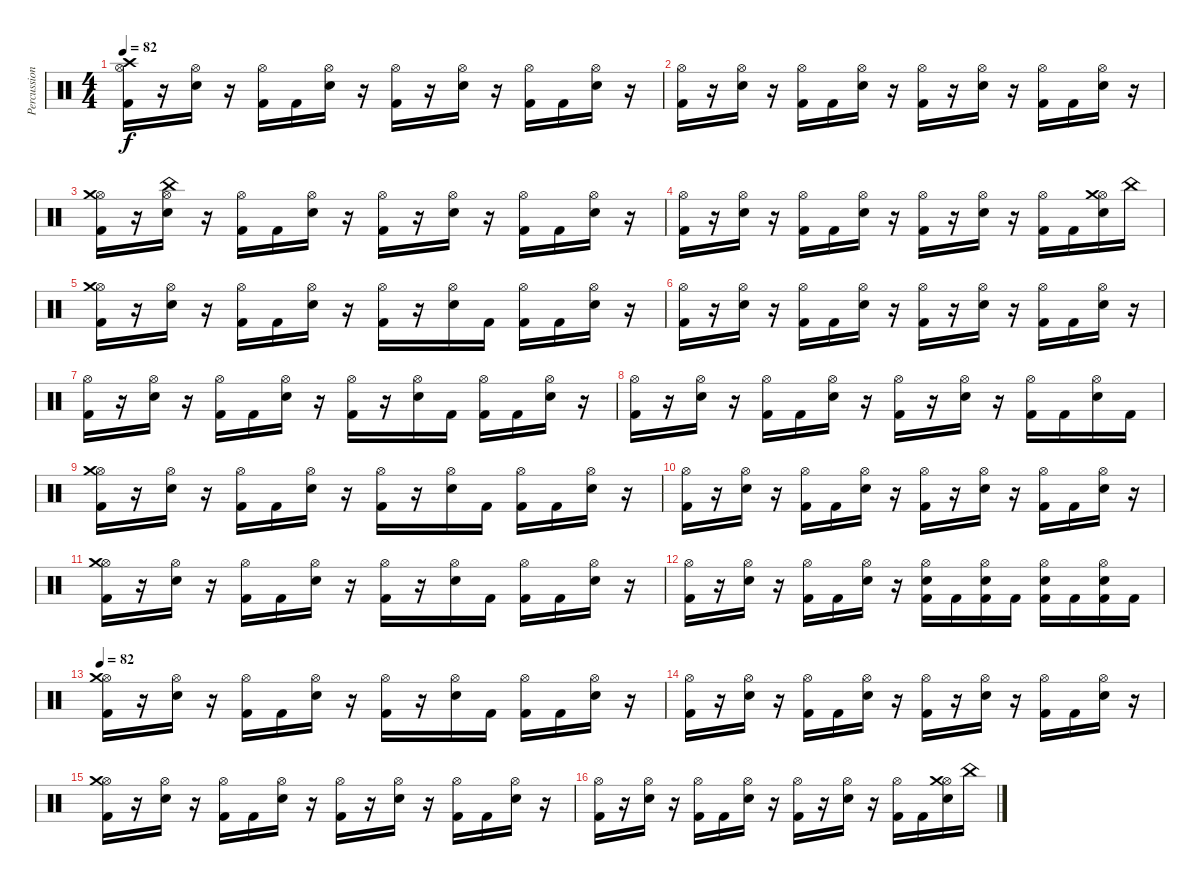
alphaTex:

\track ("Percussion" "Percussion") {instrument percussion}
\staff {score}
\articulation defaults
\ts (4 4)
\tempo 82
\clef neutral
\ks c
("Hi-Hat (open)" "Crash high (hit)" "Kick (hit) 2").16{dy f} r.16 ("Hi-Hat (open)" "Snare (hit) 2").16 r.16 ("Hi-Hat (open)" "Kick (hit) 2").16 "Kick (hit) 2".16 ("Hi-Hat (open)" "Snare (hit) 2").16 r.16 ("Hi-Hat (open)" "Kick (hit) 2").16 r.16 ("Hi-Hat (open)" "Snare (hit) 2").16 r.16 ("Hi-Hat (open)" "Kick (hit) 2").16 "Kick (hit) 2".16 ("Hi-Hat (open)" "Snare (hit) 2").16 r.16 |
("Hi-Hat (open)" "Kick (hit) 2").16 r.16 ("Hi-Hat (open)" "Snare (hit) 2").16 r.16 ("Hi-Hat (open)" "Kick (hit) 2").16 "Kick (hit) 2".16 ("Hi-Hat (open)" "Snare (hit) 2").16 r.16 ("Hi-Hat (open)" "Kick (hit) 2").16 r.16 ("Hi-Hat (open)" "Snare (hit) 2").16 r.16 ("Hi-Hat (open)" "Kick (hit) 2").16 "Kick (hit) 2".16 ("Hi-Hat (open)" "Snare (hit) 2").16 r.16 |
("Hi-Hat (open)" "Crash medium (hit)" "Kick (hit) 2").16 r.16 ("Hi-Hat (open)" "China (hit)" "Snare (hit) 2").16 r.16 ("Hi-Hat (open)" "Kick (hit) 2").16 "Kick (hit) 2".16 ("Hi-Hat (open)" "Snare (hit) 2").16 r.16 ("Hi-Hat (open)" "Kick (hit) 2").16 r.16 ("Hi-Hat (open)" "Snare (hit) 2").16 r.16 ("Hi-Hat (open)" "Kick (hit) 2").16 "Kick (hit) 2".16 ("Hi-Hat (open)" "Snare (hit) 2").16 r.16 |
("Hi-Hat (open)" "Kick (hit) 2").16 r.16 ("Hi-Hat (open)" "Snare (hit) 2").16 r.16 ("Hi-Hat (open)" "Kick (hit) 2").16 "Kick (hit) 2".16 ("Hi-Hat (open)" "Snare (hit) 2").16 r.16 ("Hi-Hat (open)" "Kick (hit) 2").16 r.16 ("Hi-Hat (open)" "Snare (hit) 2").16 r.16 ("Hi-Hat (open)" "Kick (hit) 2").16 "Kick (hit) 2".16 ("Hi-Hat (open)" "Crash medium (hit)" "Snare (hit) 2").16 "China (hit)".16 |
("Hi-Hat (open)" "Crash medium (hit)" "Kick (hit) 2").16 r.16 ("Hi-Hat (open)" "Snare (hit) 2").16 r.16 ("Hi-Hat (open)" "Kick (hit) 2").16 "Kick (hit) 2".16 ("Hi-Hat (open)" "Snare (hit) 2").16 r.16 ("Hi-Hat (open)" "Kick (hit) 2").16 r.16 ("Hi-Hat (open)" "Snare (hit) 2").16 "Kick (hit) 2".16 ("Hi-Hat (open)" "Kick (hit) 2").16 "Kick (hit) 2".16 ("Hi-Hat (open)" "Snare (hit) 2").16 r.16 |
("Hi-Hat (open)" "Kick (hit) 2").16 r.16 ("Hi-Hat (open)" "Snare (hit) 2").16 r.16 ("Hi-Hat (open)" "Kick (hit) 2").16 "Kick (hit) 2".16 ("Hi-Hat (open)" "Snare (hit) 2").16 r.16 ("Hi-Hat (open)" "Kick (hit) 2").16 r.16 ("Hi-Hat (open)" "Snare (hit) 2").16 r.16 ("Hi-Hat (open)" "Kick (hit) 2").16 "Kick (hit) 2".16 ("Hi-Hat (open)" "Snare (hit) 2").16 r.16 |
("Hi-Hat (open)" "Kick (hit) 2").16 r.16 ("Hi-Hat (open)" "Snare (hit) 2").16 r.16 ("Hi-Hat (open)" "Kick (hit) 2").16 "Kick (hit) 2".16 ("Hi-Hat (open)" "Snare (hit) 2").16 r.16 ("Hi-Hat (open)" "Kick (hit) 2").16 r.16 ("Hi-Hat (open)" "Snare (hit) 2").16 "Kick (hit) 2".16 ("Hi-Hat (open)" "Kick (hit) 2").16 "Kick (hit) 2".16 ("Hi-Hat (open)" "Snare (hit) 2").16 r.16 |
("Hi-Hat (open)" "Kick (hit) 2").16 r.16 ("Hi-Hat (open)" "Snare (hit) 2").16 r.16 ("Hi-Hat (open)" "Kick (hit) 2").16 "Kick (hit) 2".16 ("Hi-Hat (open)" "Snare (hit) 2").16 r.16 ("Hi-Hat (open)" "Kick (hit) 2").16 r.16 ("Hi-Hat (open)" "Snare (hit) 2").16 r.16 ("Hi-Hat (open)" "Kick (hit) 2").16 "Kick (hit) 2".16 ("Hi-Hat (open)" "Snare (hit) 2").16 "Kick (hit) 2".16 |
("Hi-Hat (open)" "Crash medium (hit)" "Kick (hit) 2").16 r.16 ("Hi-Hat (open)" "Snare (hit) 2").16 r.16 ("Hi-Hat (open)" "Kick (hit) 2").16 "Kick (hit) 2".16 ("Hi-Hat (open)" "Snare (hit) 2").16 r.16 ("Hi-Hat (open)" "Kick (hit) 2").16 r.16 ("Hi-Hat (open)" "Snare (hit) 2").16 "Kick (hit) 2".16 ("Hi-Hat (open)" "Kick (hit) 2").16 "Kick (hit) 2".16 ("Hi-Hat (open)" "Snare (hit) 2").16 r.16 |
("Hi-Hat (open)" "Kick (hit) 2").16 r.16 ("Hi-Hat (open)" "Snare (hit) 2").16 r.16 ("Hi-Hat (open)" "Kick (hit) 2").16 "Kick (hit) 2".16 ("Hi-Hat (open)" "Snare (hit) 2").16 r.16 ("Hi-Hat (open)" "Kick (hit) 2").16 r.16 ("Hi-Hat (open)" "Snare (hit) 2").16 r.16 ("Hi-Hat (open)" "Kick (hit) 2").16 "Kick (hit) 2".16 ("Hi-Hat (open)" "Snare (hit) 2").16 r.16 |
("Hi-Hat (open)" "Crash medium (hit)" "Kick (hit) 2").16 r.16 ("Hi-Hat (open)" "Snare (hit) 2").16 r.16 ("Hi-Hat (open)" "Kick (hit) 2").16 "Kick (hit) 2".16 ("Hi-Hat (open)" "Snare (hit) 2").16 r.16 ("Hi-Hat (open)" "Kick (hit) 2").16 r.16 ("Hi-Hat (open)" "Snare (hit) 2").16 "Kick (hit) 2".16 ("Hi-Hat (open)" "Kick (hit) 2").16 "Kick (hit) 2".16 ("Hi-Hat (open)" "Snare (hit) 2").16 r.16 |
("Hi-Hat (open)" "Kick (hit) 2").16 r.16 ("Hi-Hat (open)" "Snare (hit) 2").16 r.16 ("Hi-Hat (open)" "Kick (hit) 2").16 "Kick (hit) 2".16 ("Hi-Hat (open)" "Snare (hit) 2").16 r.16 ("Hi-Hat (open)" "Snare (hit) 2" "Kick (hit) 2").16 "Kick (hit) 2".16 ("Hi-Hat (open)" "Snare (hit) 2" "Kick (hit) 2").16 "Kick (hit) 2".16 ("Hi-Hat (open)" "Snare (hit) 2" "Kick (hit) 2").16 "Kick (hit) 2".16 ("Hi-Hat (open)" "Snare (hit) 2" "Kick (hit) 2").16 "Kick (hit) 2".16 |
\tempo 82
("Hi-Hat (open)" "Crash medium (hit)" "Kick (hit) 2").16 r.16 ("Hi-Hat (open)" "Snare (hit) 2").16 r.16 ("Hi-Hat (open)" "Kick (hit) 2").16 "Kick (hit) 2".16 ("Hi-Hat (open)" "Snare (hit) 2").16 r.16 ("Hi-Hat (open)" "Kick (hit) 2").16 r.16 ("Hi-Hat (open)" "Snare (hit) 2").16 "Kick (hit) 2".16 ("Hi-Hat (open)" "Kick (hit) 2").16 "Kick (hit) 2".16 ("Hi-Hat (open)" "Snare (hit) 2").16 r.16 |
("Hi-Hat (open)" "Kick (hit) 2").16 r.16 ("Hi-Hat (open)" "Snare (hit) 2").16 r.16 ("Hi-Hat (open)" "Kick (hit) 2").16 "Kick (hit) 2".16 ("Hi-Hat (open)" "Snare (hit) 2").16 r.16 ("Hi-Hat (open)" "Kick (hit) 2").16 r.16 ("Hi-Hat (open)" "Snare (hit) 2").16 r.16 ("Hi-Hat (open)" "Kick (hit) 2").16 "Kick (hit) 2".16 ("Hi-Hat (open)" "Snare (hit) 2").16 r.16 |
("Hi-Hat (open)" "Crash medium (hit)" "Kick (hit) 2").16 r.16 ("Hi-Hat (open)" "Snare (hit) 2").16 r.16 ("Hi-Hat (open)" "Kick (hit) 2").16 "Kick (hit) 2".16 ("Hi-Hat (open)" "Snare (hit) 2").16 r.16 ("Hi-Hat (open)" "Kick (hit) 2").16 r.16 ("Hi-Hat (open)" "Snare (hit) 2").16 r.16 ("Hi-Hat (open)" "Kick (hit) 2").16 "Kick (hit) 2".16 ("Hi-Hat (open)" "Snare (hit) 2").16 r.16 |
("Hi-Hat (open)" "Kick (hit) 2").16 r.16 ("Hi-Hat (open)" "Snare (hit) 2").16 r.16 ("Hi-Hat (open)" "Kick (hit) 2").16 "Kick (hit) 2".16 ("Hi-Hat (open)" "Snare (hit) 2").16 r.16 ("Hi-Hat (open)" "Kick (hit) 2").16 r.16 ("Hi-Hat (open)" "Snare (hit) 2").16 r.16 ("Hi-Hat (open)" "Kick (hit) 2").16 "Kick (hit) 2".16 ("Hi-Hat (open)" "Crash medium (hit)" "Snare (hit) 2").16 "China (hit)".16
